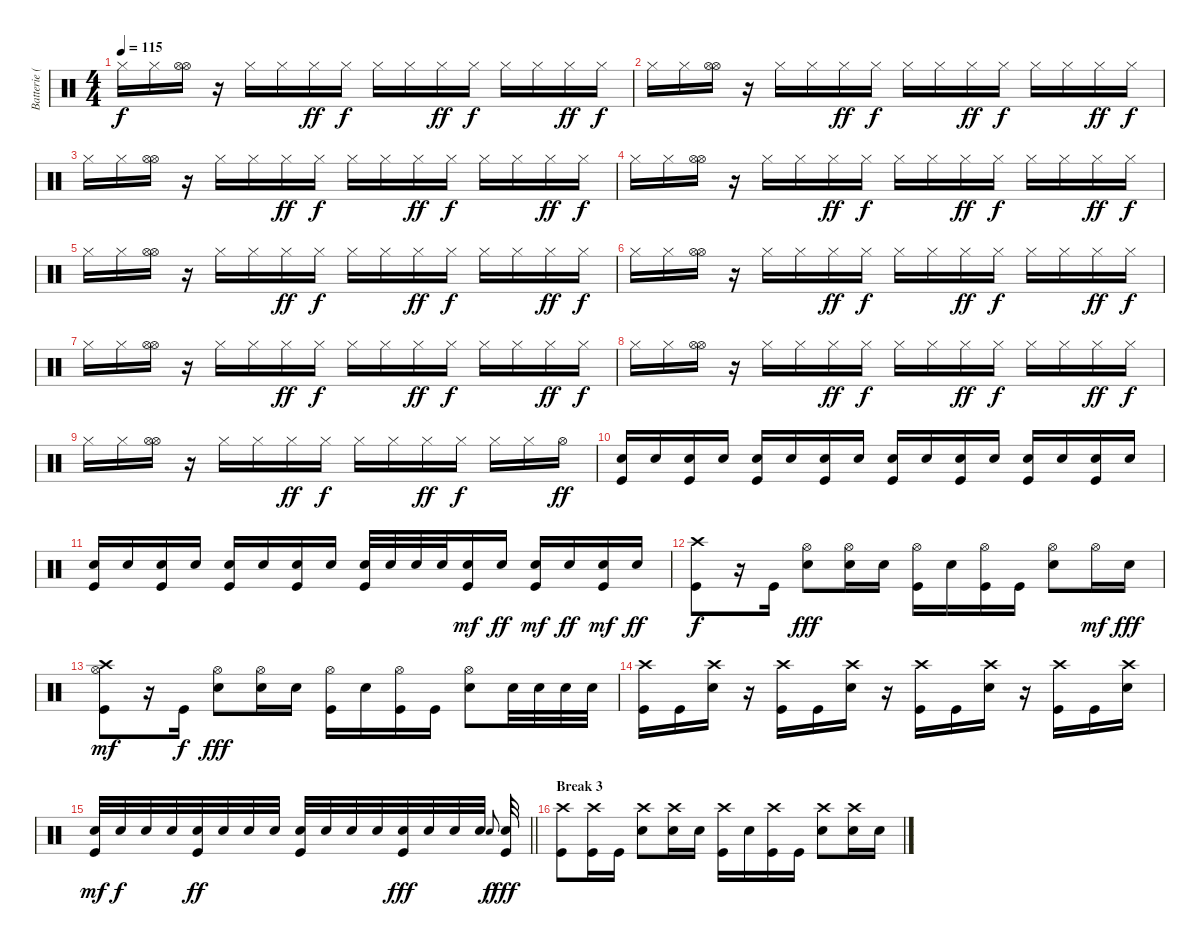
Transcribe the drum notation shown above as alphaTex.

\track ("Batterie (Steve)" "Batterie (") {instrument percussion}
\staff {score}
\articulation defaults
\ts (4 4)
\tempo 115
\clef neutral
\ks c "Hi-Hat (closed)".16{dy f} "Hi-Hat (closed)".16
("Hi-Hat (open)" "Hi-Hat (open)").16 r.16 "Hi-Hat (closed)".16 "Hi-Hat (closed)".16 "Hi-Hat (closed)".16{dy ff} "Hi-Hat (closed)".16{dy f} "Hi-Hat (closed)".16 "Hi-Hat (closed)".16 "Hi-Hat (closed)".16{dy ff} "Hi-Hat (closed)".16{dy f} "Hi-Hat (closed)".16 "Hi-Hat (closed)".16 "Hi-Hat (closed)".16{dy ff} "Hi-Hat (closed)".16{dy f} |
"Hi-Hat (closed)".16 "Hi-Hat (closed)".16 ("Hi-Hat (open)" "Hi-Hat (open)").16 r.16 "Hi-Hat (closed)".16 "Hi-Hat (closed)".16 "Hi-Hat (closed)".16{dy ff} "Hi-Hat (closed)".16{dy f} "Hi-Hat (closed)".16 "Hi-Hat (closed)".16 "Hi-Hat (closed)".16{dy ff} "Hi-Hat (closed)".16{dy f} "Hi-Hat (closed)".16 "Hi-Hat (closed)".16 "Hi-Hat (closed)".16{dy ff} "Hi-Hat (closed)".16{dy f} |
"Hi-Hat (closed)".16 "Hi-Hat (closed)".16 ("Hi-Hat (open)" "Hi-Hat (open)").16 r.16 "Hi-Hat (closed)".16 "Hi-Hat (closed)".16 "Hi-Hat (closed)".16{dy ff} "Hi-Hat (closed)".16{dy f} "Hi-Hat (closed)".16 "Hi-Hat (closed)".16 "Hi-Hat (closed)".16{dy ff} "Hi-Hat (closed)".16{dy f} "Hi-Hat (closed)".16 "Hi-Hat (closed)".16 "Hi-Hat (closed)".16{dy ff} "Hi-Hat (closed)".16{dy f} |
"Hi-Hat (closed)".16 "Hi-Hat (closed)".16 ("Hi-Hat (open)" "Hi-Hat (open)").16 r.16 "Hi-Hat (closed)".16 "Hi-Hat (closed)".16 "Hi-Hat (closed)".16{dy ff} "Hi-Hat (closed)".16{dy f} "Hi-Hat (closed)".16 "Hi-Hat (closed)".16 "Hi-Hat (closed)".16{dy ff} "Hi-Hat (closed)".16{dy f} "Hi-Hat (closed)".16 "Hi-Hat (closed)".16 "Hi-Hat (closed)".16{dy ff} "Hi-Hat (closed)".16{dy f} |
"Hi-Hat (closed)".16 "Hi-Hat (closed)".16 ("Hi-Hat (open)" "Hi-Hat (open)").16 r.16 "Hi-Hat (closed)".16 "Hi-Hat (closed)".16 "Hi-Hat (closed)".16{dy ff} "Hi-Hat (closed)".16{dy f} "Hi-Hat (closed)".16 "Hi-Hat (closed)".16 "Hi-Hat (closed)".16{dy ff} "Hi-Hat (closed)".16{dy f} "Hi-Hat (closed)".16 "Hi-Hat (closed)".16 "Hi-Hat (closed)".16{dy ff} "Hi-Hat (closed)".16{dy f} |
"Hi-Hat (closed)".16 "Hi-Hat (closed)".16 ("Hi-Hat (open)" "Hi-Hat (open)").16 r.16 "Hi-Hat (closed)".16 "Hi-Hat (closed)".16 "Hi-Hat (closed)".16{dy ff} "Hi-Hat (closed)".16{dy f} "Hi-Hat (closed)".16 "Hi-Hat (closed)".16 "Hi-Hat (closed)".16{dy ff} "Hi-Hat (closed)".16{dy f} "Hi-Hat (closed)".16 "Hi-Hat (closed)".16 "Hi-Hat (closed)".16{dy ff} "Hi-Hat (closed)".16{dy f} |
"Hi-Hat (closed)".16 "Hi-Hat (closed)".16 ("Hi-Hat (open)" "Hi-Hat (open)").16 r.16 "Hi-Hat (closed)".16 "Hi-Hat (closed)".16 "Hi-Hat (closed)".16{dy ff} "Hi-Hat (closed)".16{dy f} "Hi-Hat (closed)".16 "Hi-Hat (closed)".16 "Hi-Hat (closed)".16{dy ff} "Hi-Hat (closed)".16{dy f} "Hi-Hat (closed)".16 "Hi-Hat (closed)".16 "Hi-Hat (closed)".16{dy ff} "Hi-Hat (closed)".16{dy f} |
"Hi-Hat (closed)".16 "Hi-Hat (closed)".16 ("Hi-Hat (open)" "Hi-Hat (open)").16 r.16 "Hi-Hat (closed)".16 "Hi-Hat (closed)".16 "Hi-Hat (closed)".16{dy ff} "Hi-Hat (closed)".16{dy f} "Hi-Hat (closed)".16 "Hi-Hat (closed)".16 "Hi-Hat (closed)".16{dy ff} "Hi-Hat (closed)".16{dy f} "Hi-Hat (closed)".16 "Hi-Hat (closed)".16 "Hi-Hat (closed)".16{dy ff} "Hi-Hat (closed)".16{dy f} |
"Hi-Hat (closed)".16 "Hi-Hat (closed)".16 ("Hi-Hat (open)" "Hi-Hat (open)").16 r.16 "Hi-Hat (closed)".16 "Hi-Hat (closed)".16 "Hi-Hat (closed)".16{dy ff} "Hi-Hat (closed)".16{dy f} "Hi-Hat (closed)".16 "Hi-Hat (closed)".16 "Hi-Hat (closed)".16{dy ff} "Hi-Hat (closed)".16{dy f} "Hi-Hat (closed)".16 "Hi-Hat (closed)".16 "Hi-Hat (open)".16{dy ff} |
("Electric Snare (hit)" "Kick (hit)").16{volume 4} "Electric Snare (hit)".16{volume 16} ("Electric Snare (hit)" "Kick (hit)").16 "Electric Snare (hit)".16 ("Electric Snare (hit)" "Kick (hit)").16 "Electric Snare (hit)".16 ("Electric Snare (hit)" "Kick (hit)").16 "Electric Snare (hit)".16 ("Electric Snare (hit)" "Kick (hit)").16 "Electric Snare (hit)".16 ("Electric Snare (hit)" "Kick (hit)").16 "Electric Snare (hit)".16 ("Electric Snare (hit)" "Kick (hit)").16 "Electric Snare (hit)".16 ("Electric Snare (hit)" "Kick (hit)").16 "Electric Snare (hit)".16 |
("Electric Snare (hit)" "Kick (hit)").16 "Electric Snare (hit)".16 ("Electric Snare (hit)" "Kick (hit)").16 "Electric Snare (hit)".16 ("Electric Snare (hit)" "Kick (hit)").16 "Electric Snare (hit)".16 ("Electric Snare (hit)" "Kick (hit)").16 "Electric Snare (hit)".16 ("Electric Snare (hit)" "Kick (hit)").32 "Electric Snare (hit)".32 "Electric Snare (hit)".32 "Electric Snare (hit)".32 ("Electric Snare (hit)" "Kick (hit)").16{dy mf} "Electric Snare (hit)".16{dy ff} ("Electric Snare (hit)" "Kick (hit)").16{dy mf} "Electric Snare (hit)".16{dy ff} ("Electric Snare (hit)" "Kick (hit)").16{dy mf} "Electric Snare (hit)".16{dy ff} |
("Crash high (hit)" "Kick (hit)").8{dy f} r.16 "Kick (hit)".16 ("Hi-Hat (open)" "Electric Snare (hit)").8{dy fff} ("Hi-Hat (open)" "Electric Snare (hit)").16 "Electric Snare (hit)".16 ("Hi-Hat (open)" "Kick (hit)").16 "Electric Snare (hit)".16 ("Hi-Hat (open)" "Kick (hit)").16 "Kick (hit)".16 ("Hi-Hat (open)" "Electric Snare (hit)").8 "Hi-Hat (open)".16{dy mf} "Electric Snare (hit)".16{dy fff} |
("Crash high (hit)" "Hi-Hat (open)" "Kick (hit)").8{dy mf} r.16 "Kick (hit)".16{dy f} ("Hi-Hat (open)" "Electric Snare (hit)").8{dy fff} ("Hi-Hat (open)" "Electric Snare (hit)").16 "Electric Snare (hit)".16 ("Hi-Hat (open)" "Kick (hit)").16 "Electric Snare (hit)".16 ("Hi-Hat (open)" "Kick (hit)").16 "Kick (hit)".16 ("Hi-Hat (open)" "Electric Snare (hit)").8 "Electric Snare (hit)".32 "Electric Snare (hit)".32 "Electric Snare (hit)".32 "Electric Snare (hit)".32 |
("Crash high (hit)" "Kick (hit)").16 "Kick (hit)".16 ("Crash high (hit)" "Electric Snare (hit)").16 r.16 ("Crash high (hit)" "Kick (hit)").16 "Kick (hit)".16 ("Crash high (hit)" "Electric Snare (hit)").16 r.16 ("Crash high (hit)" "Kick (hit)").16 "Kick (hit)".16 ("Crash high (hit)" "Electric Snare (hit)").16 r.16 ("Crash high (hit)" "Kick (hit)").16 "Kick (hit)".16 ("Crash high (hit)" "Electric Snare (hit)").16 |
\barLineRight lightlight
("Kick (hit)" "Electric Snare (hit)").32{dy mf} "Electric Snare (hit)".32{dy f} "Electric Snare (hit)".32 "Electric Snare (hit)".32 ("Kick (hit)" "Electric Snare (hit)").32{dy ff} "Electric Snare (hit)".32 "Electric Snare (hit)".32 "Electric Snare (hit)".32 ("Kick (hit)" "Electric Snare (hit)").32 "Electric Snare (hit)".32 "Electric Snare (hit)".32 "Electric Snare (hit)".32 ("Kick (hit)" "Electric Snare (hit)").32{dy fff} "Electric Snare (hit)".32 "Electric Snare (hit)".32 "Electric Snare (hit)".32 "Electric Snare (hit)".8{gr onbeat dy f} ("Electric Snare (hit)" "Kick (hit)").32{dy fff} |
\section ("" "Break 3")
("Crash high (hit)" "Kick (hit)").8 ("Crash high (hit)" "Kick (hit)").16 "Kick (hit)".16 ("Crash high (hit)" "Electric Snare (hit)").8 ("Crash high (hit)" "Electric Snare (hit)").16 "Electric Snare (hit)".16 ("Crash high (hit)" "Kick (hit)").16 "Electric Snare (hit)".16 ("Crash high (hit)" "Kick (hit)").16 "Kick (hit)".16 ("Crash high (hit)" "Electric Snare (hit)").8 ("Crash high (hit)" "Electric Snare (hit)").16 "Electric Snare (hit)".16
